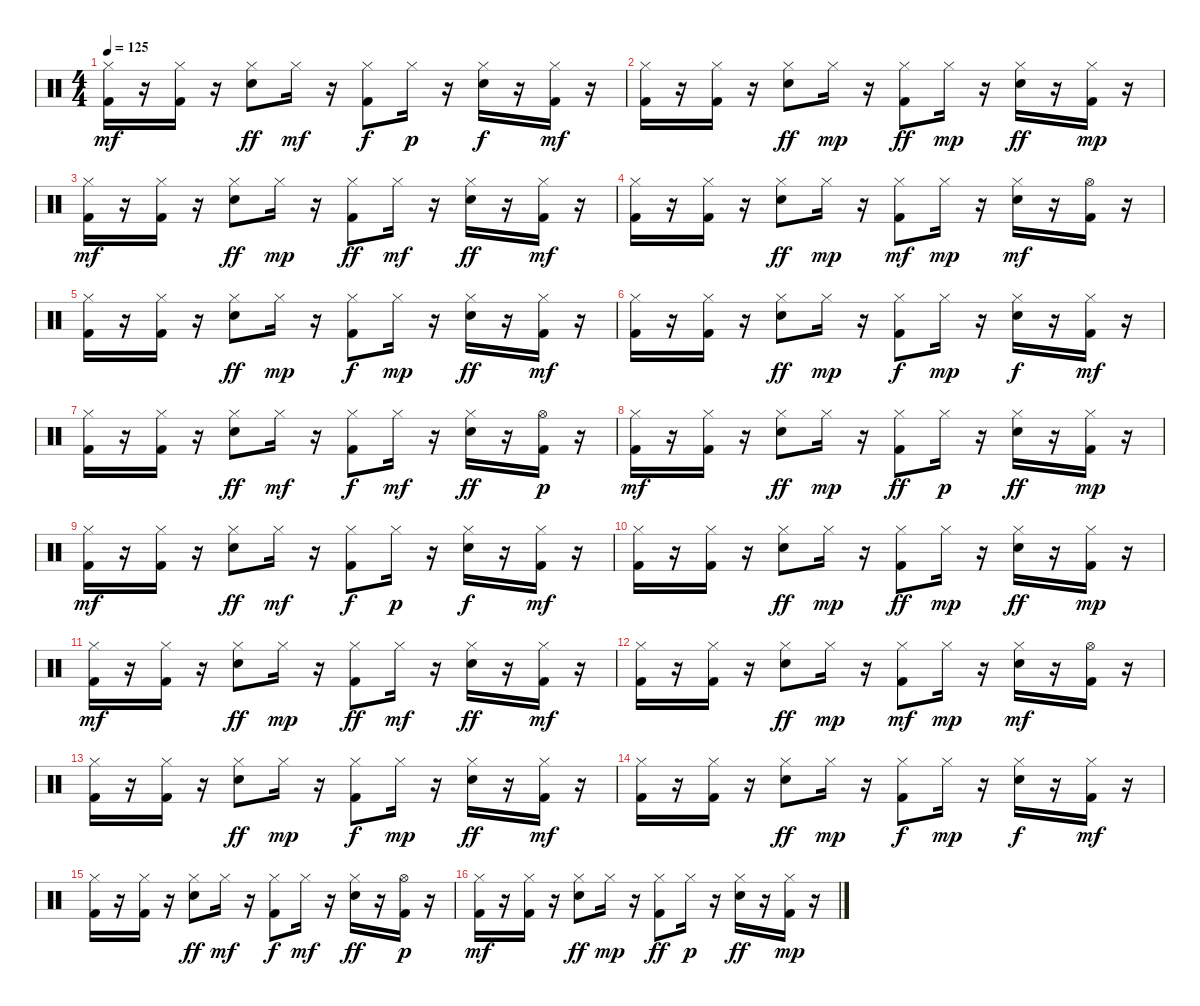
\track "" {instrument percussion}
\staff {score}
\articulation defaults
\ts (4 4)
\tempo 125
\clef neutral
\ks c
("Hi-Hat (closed)" "Kick (hit) 2").16{dy mf} r.16 ("Hi-Hat (closed)" "Kick (hit) 2").16 r.16 ("Snare (hit) 2" "Hi-Hat (closed)").8{dy ff} "Hi-Hat (closed)".16{dy mf} r.16 ("Kick (hit) 2" "Hi-Hat (closed)").8{dy f} "Hi-Hat (closed)".16{dy p} r.16 ("Snare (hit) 2" "Hi-Hat (closed)").16{dy f} r.16 ("Hi-Hat (closed)" "Kick (hit) 2").16{dy mf} r.16 |
("Hi-Hat (closed)" "Kick (hit) 2").16 r.16 ("Hi-Hat (closed)" "Kick (hit) 2").16 r.16 ("Snare (hit) 2" "Hi-Hat (closed)").8{dy ff} "Hi-Hat (closed)".16{dy mp} r.16 ("Kick (hit) 2" "Hi-Hat (closed)").8{dy ff} "Hi-Hat (closed)".16{dy mp} r.16 ("Snare (hit) 2" "Hi-Hat (closed)").16{dy ff} r.16 ("Hi-Hat (closed)" "Kick (hit) 2").16{dy mp} r.16 |
("Hi-Hat (closed)" "Kick (hit) 2").16{dy mf} r.16 ("Hi-Hat (closed)" "Kick (hit) 2").16 r.16 ("Hi-Hat (closed)" "Snare (hit) 2").8{dy ff} "Hi-Hat (closed)".16{dy mp} r.16 ("Hi-Hat (closed)" "Kick (hit) 2").8{dy ff} "Hi-Hat (closed)".16{dy mf} r.16 ("Snare (hit) 2" "Hi-Hat (closed)").16{dy ff} r.16 ("Kick (hit) 2" "Hi-Hat (closed)").16{dy mf} r.16 |
("Hi-Hat (closed)" "Kick (hit) 2").16 r.16 ("Kick (hit) 2" "Hi-Hat (closed)").16 r.16 ("Hi-Hat (closed)" "Snare (hit) 2").8{dy ff} "Hi-Hat (closed)".16{dy mp} r.16 ("Kick (hit) 2" "Hi-Hat (closed)").8{dy mf} "Hi-Hat (closed)".16{dy mp} r.16 ("Snare (hit) 2" "Hi-Hat (closed)").16{dy mf} r.16 ("Hi-Hat (open)" "Kick (hit) 2").16 r.16 |
("Hi-Hat (closed)" "Kick (hit) 2").16 r.16 ("Hi-Hat (closed)" "Kick (hit) 2").16 r.16 ("Snare (hit) 2" "Hi-Hat (closed)").8{dy ff} "Hi-Hat (closed)".16{dy mp} r.16 ("Hi-Hat (closed)" "Kick (hit) 2").8{dy f} "Hi-Hat (closed)".16{dy mp} r.16 ("Hi-Hat (closed)" "Snare (hit) 2").16{dy ff} r.16 ("Hi-Hat (closed)" "Kick (hit) 2").16{dy mf} r.16 |
("Hi-Hat (closed)" "Kick (hit) 2").16 r.16 ("Hi-Hat (closed)" "Kick (hit) 2").16 r.16 ("Hi-Hat (closed)" "Snare (hit) 2").8{dy ff} "Hi-Hat (closed)".16{dy mp} r.16 ("Hi-Hat (closed)" "Kick (hit) 2").8{dy f} "Hi-Hat (closed)".16{dy mp} r.16 ("Snare (hit) 2" "Hi-Hat (closed)").16{dy f} r.16 ("Kick (hit) 2" "Hi-Hat (closed)").16{dy mf} r.16 |
("Hi-Hat (closed)" "Kick (hit) 2").16 r.16 ("Kick (hit) 2" "Hi-Hat (closed)").16 r.16 ("Snare (hit) 2" "Hi-Hat (closed)").8{dy ff} "Hi-Hat (closed)".16{dy mf} r.16 ("Kick (hit) 2" "Hi-Hat (closed)").8{dy f} "Hi-Hat (closed)".16{dy mf} r.16 ("Hi-Hat (closed)" "Snare (hit) 2").16{dy ff} r.16 ("Kick (hit) 2" "Hi-Hat (open)").16{dy p} r.16 |
("Hi-Hat (closed)" "Kick (hit) 2").16{dy mf} r.16 ("Kick (hit) 2" "Hi-Hat (closed)").16 r.16 ("Hi-Hat (closed)" "Snare (hit) 2").8{dy ff} "Hi-Hat (closed)".16{dy mp} r.16 ("Kick (hit) 2" "Hi-Hat (closed)").8{dy ff} "Hi-Hat (closed)".16{dy p} r.16 ("Hi-Hat (closed)" "Snare (hit) 2").16{dy ff} r.16 ("Hi-Hat (closed)" "Kick (hit) 2").16{dy mp} r.16 |
("Hi-Hat (closed)" "Kick (hit) 2").16{dy mf} r.16 ("Hi-Hat (closed)" "Kick (hit) 2").16 r.16 ("Snare (hit) 2" "Hi-Hat (closed)").8{dy ff} "Hi-Hat (closed)".16{dy mf} r.16 ("Kick (hit) 2" "Hi-Hat (closed)").8{dy f} "Hi-Hat (closed)".16{dy p} r.16 ("Snare (hit) 2" "Hi-Hat (closed)").16{dy f} r.16 ("Hi-Hat (closed)" "Kick (hit) 2").16{dy mf} r.16 |
("Hi-Hat (closed)" "Kick (hit) 2").16 r.16 ("Hi-Hat (closed)" "Kick (hit) 2").16 r.16 ("Snare (hit) 2" "Hi-Hat (closed)").8{dy ff} "Hi-Hat (closed)".16{dy mp} r.16 ("Kick (hit) 2" "Hi-Hat (closed)").8{dy ff} "Hi-Hat (closed)".16{dy mp} r.16 ("Snare (hit) 2" "Hi-Hat (closed)").16{dy ff} r.16 ("Hi-Hat (closed)" "Kick (hit) 2").16{dy mp} r.16 |
("Hi-Hat (closed)" "Kick (hit) 2").16{dy mf} r.16 ("Hi-Hat (closed)" "Kick (hit) 2").16 r.16 ("Hi-Hat (closed)" "Snare (hit) 2").8{dy ff} "Hi-Hat (closed)".16{dy mp} r.16 ("Hi-Hat (closed)" "Kick (hit) 2").8{dy ff} "Hi-Hat (closed)".16{dy mf} r.16 ("Snare (hit) 2" "Hi-Hat (closed)").16{dy ff} r.16 ("Kick (hit) 2" "Hi-Hat (closed)").16{dy mf} r.16 |
("Hi-Hat (closed)" "Kick (hit) 2").16 r.16 ("Kick (hit) 2" "Hi-Hat (closed)").16 r.16 ("Hi-Hat (closed)" "Snare (hit) 2").8{dy ff} "Hi-Hat (closed)".16{dy mp} r.16 ("Kick (hit) 2" "Hi-Hat (closed)").8{dy mf} "Hi-Hat (closed)".16{dy mp} r.16 ("Snare (hit) 2" "Hi-Hat (closed)").16{dy mf} r.16 ("Hi-Hat (open)" "Kick (hit) 2").16 r.16 |
("Hi-Hat (closed)" "Kick (hit) 2").16 r.16 ("Hi-Hat (closed)" "Kick (hit) 2").16 r.16 ("Snare (hit) 2" "Hi-Hat (closed)").8{dy ff} "Hi-Hat (closed)".16{dy mp} r.16 ("Hi-Hat (closed)" "Kick (hit) 2").8{dy f} "Hi-Hat (closed)".16{dy mp} r.16 ("Hi-Hat (closed)" "Snare (hit) 2").16{dy ff} r.16 ("Hi-Hat (closed)" "Kick (hit) 2").16{dy mf} r.16 |
("Hi-Hat (closed)" "Kick (hit) 2").16 r.16 ("Hi-Hat (closed)" "Kick (hit) 2").16 r.16 ("Hi-Hat (closed)" "Snare (hit) 2").8{dy ff} "Hi-Hat (closed)".16{dy mp} r.16 ("Hi-Hat (closed)" "Kick (hit) 2").8{dy f} "Hi-Hat (closed)".16{dy mp} r.16 ("Snare (hit) 2" "Hi-Hat (closed)").16{dy f} r.16 ("Kick (hit) 2" "Hi-Hat (closed)").16{dy mf} r.16 |
("Hi-Hat (closed)" "Kick (hit) 2").16 r.16 ("Kick (hit) 2" "Hi-Hat (closed)").16 r.16 ("Snare (hit) 2" "Hi-Hat (closed)").8{dy ff} "Hi-Hat (closed)".16{dy mf} r.16 ("Kick (hit) 2" "Hi-Hat (closed)").8{dy f} "Hi-Hat (closed)".16{dy mf} r.16 ("Hi-Hat (closed)" "Snare (hit) 2").16{dy ff} r.16 ("Kick (hit) 2" "Hi-Hat (open)").16{dy p} r.16 |
("Hi-Hat (closed)" "Kick (hit) 2").16{dy mf} r.16 ("Kick (hit) 2" "Hi-Hat (closed)").16 r.16 ("Hi-Hat (closed)" "Snare (hit) 2").8{dy ff} "Hi-Hat (closed)".16{dy mp} r.16 ("Kick (hit) 2" "Hi-Hat (closed)").8{dy ff} "Hi-Hat (closed)".16{dy p} r.16 ("Hi-Hat (closed)" "Snare (hit) 2").16{dy ff} r.16 ("Hi-Hat (closed)" "Kick (hit) 2").16{dy mp} r.16
